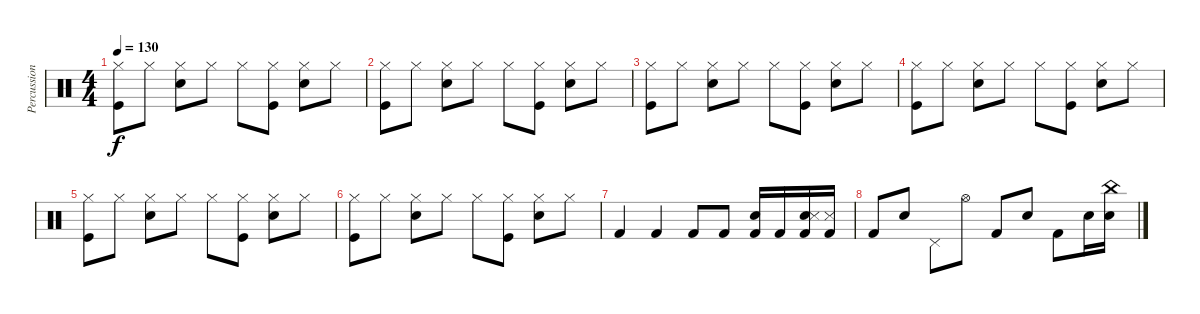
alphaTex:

\track ("Percussions" "Percussion") {instrument percussion}
\staff {score}
\articulation defaults
\ts (4 4)
\tempo 130
\clef neutral
\ks c
("Hi-Hat (closed)" "Kick (hit)").8{dy f} "Hi-Hat (closed)".8 ("Hi-Hat (closed)" "Snare (hit) 2").8 "Hi-Hat (closed)".8 "Hi-Hat (closed)".8 ("Hi-Hat (closed)" "Kick (hit)").8 ("Hi-Hat (closed)" "Snare (hit) 2").8 "Hi-Hat (closed)".8 |
("Hi-Hat (closed)" "Kick (hit)").8 "Hi-Hat (closed)".8 ("Hi-Hat (closed)" "Snare (hit) 2").8 "Hi-Hat (closed)".8 "Hi-Hat (closed)".8 ("Hi-Hat (closed)" "Kick (hit)").8 ("Hi-Hat (closed)" "Snare (hit) 2").8 "Hi-Hat (closed)".8 |
("Hi-Hat (closed)" "Kick (hit)").8 "Hi-Hat (closed)".8 ("Hi-Hat (closed)" "Snare (hit) 2").8 "Hi-Hat (closed)".8 "Hi-Hat (closed)".8 ("Hi-Hat (closed)" "Kick (hit)").8 ("Hi-Hat (closed)" "Snare (hit) 2").8 "Hi-Hat (closed)".8 |
("Hi-Hat (closed)" "Kick (hit)").8 "Hi-Hat (closed)".8 ("Hi-Hat (closed)" "Snare (hit) 2").8 "Hi-Hat (closed)".8 "Hi-Hat (closed)".8 ("Hi-Hat (closed)" "Kick (hit)").8 ("Hi-Hat (closed)" "Snare (hit) 2").8 "Hi-Hat (closed)".8 |
("Hi-Hat (closed)" "Kick (hit)").8 "Hi-Hat (closed)".8 ("Hi-Hat (closed)" "Snare (hit) 2").8 "Hi-Hat (closed)".8 "Hi-Hat (closed)".8 ("Hi-Hat (closed)" "Kick (hit)").8 ("Hi-Hat (closed)" "Snare (hit) 2").8 "Hi-Hat (closed)".8 |
("Hi-Hat (closed)" "Kick (hit)").8 "Hi-Hat (closed)".8 ("Hi-Hat (closed)" "Snare (hit) 2").8 "Hi-Hat (closed)".8 "Hi-Hat (closed)".8 ("Hi-Hat (closed)" "Kick (hit)").8 ("Hi-Hat (closed)" "Snare (hit) 2").8 "Hi-Hat (closed)".8 |
"Kick (hit) 2".4 "Kick (hit) 2".4 "Kick (hit) 2".8 "Kick (hit) 2".8 ("Kick (hit) 2" "Electric Snare (hit)").16 "Kick (hit) 2".16 ("Kick (hit) 2" "Electric Snare (hit)" "Snare (side stick) 3").16 ("Kick (hit) 2" "Snare (side stick) 3").16 |
"Kick (hit) 2".8 "Electric Snare (hit)".8 "Pedal Hi-Hat (hit)".8 "Hi-Hat (open)".8 "Kick (hit) 2".8 "Electric Snare (hit)".8 "Kick (hit) 2".8 "Electric Snare (hit)".16 ("Electric Snare (hit)" "China (hit)").16
